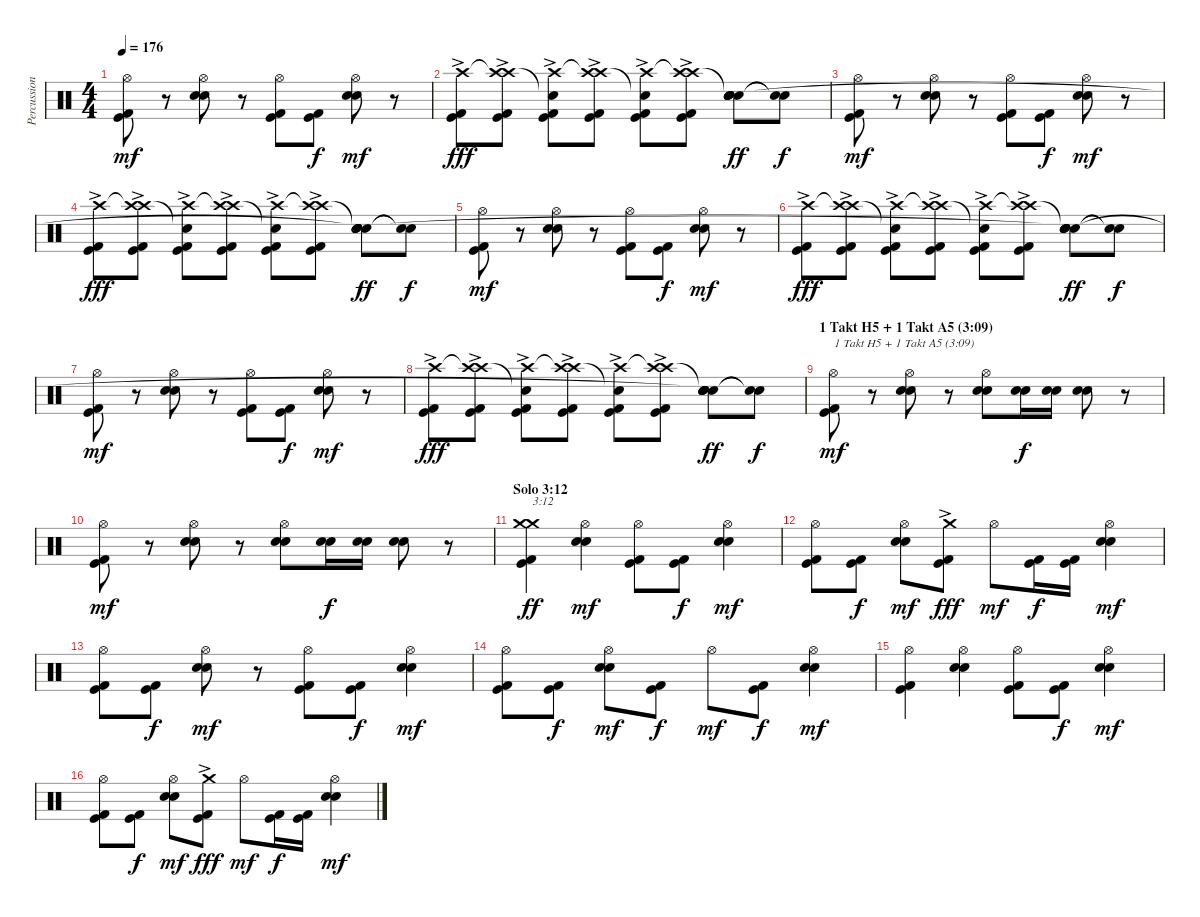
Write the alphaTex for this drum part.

\track ("Percussion" "Percussion") {instrument percussion}
\staff {score}
\articulation defaults
\ts (4 4)
\tempo 176
\clef neutral
\ks c
("Kick (hit) 2" "Kick (hit)" "Hi-Hat (open)").8{dy mf} r.8 ("Electric Snare (hit)" "Snare (hit) 2" "Hi-Hat (open)").8 r.8 ("Kick (hit) 2" "Kick (hit)" "Hi-Hat (open)").8 ("Kick (hit) 2" "Kick (hit)").8{dy f} ("Electric Snare (hit)" "Snare (hit) 2" "Hi-Hat (open)").8{dy mf} r.8 |
("Kick (hit) 2" "Kick (hit)" "Crash high (hit)"{ac}).8{dy fff} ("Kick (hit) 2" "Kick (hit)" "Crash high (hit)"{t} "Crash high (hit)"{ac}).8 ("Kick (hit) 2" "Kick (hit)" "Crash high (hit)"{ac} "Snare (hit)"{t}).8 ("Kick (hit) 2" "Kick (hit)" "Crash high (hit)"{t} "Crash high (hit)"{ac}).8 ("Kick (hit) 2" "Kick (hit)" "Crash high (hit)"{ac} "Snare (hit)"{t}).8 ("Kick (hit) 2" "Kick (hit)" "Crash high (hit)"{t} "Crash high (hit)"{ac}).8 ("Electric Snare (hit)" "Snare (hit) 2" "Electric Snare (hit)" "Electric Snare (hit)"{t} "Snare (hit)"{t}).8{dy ff} ("Snare (hit)"{t} "Snare (hit)"{t}).8{dy f} |
("Kick (hit) 2" "Kick (hit)" "Hi-Hat (open)").8{dy mf} r.8 ("Electric Snare (hit)" "Snare (hit) 2" "Hi-Hat (open)").8 r.8 ("Kick (hit) 2" "Kick (hit)" "Hi-Hat (open)").8 ("Kick (hit) 2" "Kick (hit)").8{dy f} ("Electric Snare (hit)" "Snare (hit) 2" "Hi-Hat (open)").8{dy mf} r.8 |
("Kick (hit) 2" "Kick (hit)" "Crash high (hit)"{ac}).8{dy fff} ("Kick (hit) 2" "Kick (hit)" "Crash high (hit)"{t} "Crash high (hit)"{ac}).8 ("Kick (hit) 2" "Kick (hit)" "Crash high (hit)"{ac} "Snare (hit)"{t}).8 ("Kick (hit) 2" "Kick (hit)" "Crash high (hit)"{t} "Crash high (hit)"{ac}).8 ("Kick (hit) 2" "Kick (hit)" "Crash high (hit)"{ac} "Snare (hit)"{t}).8 ("Kick (hit) 2" "Kick (hit)" "Crash high (hit)"{t} "Crash high (hit)"{ac}).8 ("Electric Snare (hit)" "Snare (hit) 2" "Electric Snare (hit)" "Electric Snare (hit)"{t} "Snare (hit)"{t}).8{dy ff} ("Snare (hit)"{t} "Snare (hit)"{t}).8{dy f} |
("Kick (hit) 2" "Kick (hit)" "Hi-Hat (open)").8{dy mf} r.8 ("Electric Snare (hit)" "Snare (hit) 2" "Hi-Hat (open)").8 r.8 ("Kick (hit) 2" "Kick (hit)" "Hi-Hat (open)").8 ("Kick (hit) 2" "Kick (hit)").8{dy f} ("Electric Snare (hit)" "Snare (hit) 2" "Hi-Hat (open)").8{dy mf} r.8 |
("Kick (hit) 2" "Kick (hit)" "Crash high (hit)"{ac}).8{dy fff} ("Kick (hit) 2" "Kick (hit)" "Crash high (hit)"{t} "Crash high (hit)"{ac}).8 ("Kick (hit) 2" "Kick (hit)" "Crash high (hit)"{ac} "Snare (hit)"{t}).8 ("Kick (hit) 2" "Kick (hit)" "Crash high (hit)"{t} "Crash high (hit)"{ac}).8 ("Kick (hit) 2" "Kick (hit)" "Crash high (hit)"{ac} "Snare (hit)"{t}).8 ("Kick (hit) 2" "Kick (hit)" "Crash high (hit)"{t} "Crash high (hit)"{ac}).8 ("Electric Snare (hit)" "Snare (hit) 2" "Electric Snare (hit)" "Electric Snare (hit)"{t} "Snare (hit)"{t}).8{dy ff} ("Snare (hit)"{t} "Snare (hit)"{t}).8{dy f} |
("Kick (hit) 2" "Kick (hit)" "Hi-Hat (open)").8{dy mf} r.8 ("Electric Snare (hit)" "Snare (hit) 2" "Hi-Hat (open)").8 r.8 ("Kick (hit) 2" "Kick (hit)" "Hi-Hat (open)").8 ("Kick (hit) 2" "Kick (hit)").8{dy f} ("Electric Snare (hit)" "Snare (hit) 2" "Hi-Hat (open)").8{dy mf} r.8 |
("Kick (hit) 2" "Kick (hit)" "Crash high (hit)"{ac}).8{dy fff} ("Kick (hit) 2" "Kick (hit)" "Crash high (hit)"{t} "Crash high (hit)"{ac}).8 ("Kick (hit) 2" "Kick (hit)" "Crash high (hit)"{ac} "Snare (hit)"{t}).8 ("Kick (hit) 2" "Kick (hit)" "Crash high (hit)"{t} "Crash high (hit)"{ac}).8 ("Kick (hit) 2" "Kick (hit)" "Crash high (hit)"{ac} "Snare (hit)"{t}).8 ("Kick (hit) 2" "Kick (hit)" "Crash high (hit)"{t} "Crash high (hit)"{ac}).8 ("Electric Snare (hit)" "Snare (hit) 2" "Electric Snare (hit)" "Electric Snare (hit)"{t} "Snare (hit)"{t}).8{dy ff} ("Snare (hit)"{t} "Snare (hit)"{t}).8{dy f} |
\section ("" "1 Takt H5 + 1 Takt A5 (3:09)")
("Kick (hit) 2" "Kick (hit)" "Hi-Hat (open)").8{txt "1 Takt H5 + 1 Takt A5 (3:09)" dy mf} r.8 ("Electric Snare (hit)" "Snare (hit) 2" "Hi-Hat (open)").8 r.8 ("Electric Snare (hit)" "Snare (hit) 2" "Hi-Hat (open)").8 ("Electric Snare (hit)" "Snare (hit) 2").16{dy f} ("Electric Snare (hit)" "Snare (hit) 2").16 ("Electric Snare (hit)" "Snare (hit) 2").8 r.8 |
("Kick (hit) 2" "Kick (hit)" "Hi-Hat (open)").8{dy mf} r.8 ("Electric Snare (hit)" "Snare (hit) 2" "Hi-Hat (open)").8 r.8 ("Electric Snare (hit)" "Snare (hit) 2" "Hi-Hat (open)").8 ("Electric Snare (hit)" "Snare (hit) 2").16{dy f} ("Electric Snare (hit)" "Snare (hit) 2").16 ("Electric Snare (hit)" "Snare (hit) 2").8 r.8 |
\section ("" "Solo 3:12")
("Kick (hit) 2" "Kick (hit)" "Crash medium (hit)" "Crash medium (hit)").4{txt "3:12" dy ff} ("Electric Snare (hit)" "Snare (hit) 2" "Hi-Hat (open)").4{dy mf} ("Kick (hit) 2" "Kick (hit)" "Hi-Hat (open)").8 ("Kick (hit) 2" "Kick (hit)").8{dy f} ("Electric Snare (hit)" "Snare (hit) 2" "Hi-Hat (open)").4{dy mf} |
("Kick (hit) 2" "Kick (hit)" "Hi-Hat (open)").8 ("Kick (hit) 2" "Kick (hit)").8{dy f} ("Electric Snare (hit)" "Snare (hit) 2" "Hi-Hat (open)").8{dy mf} ("Kick (hit) 2" "Kick (hit)" "Crash medium (hit)"{ac}).8{dy fff} "Hi-Hat (open)".8{dy mf} ("Kick (hit) 2" "Kick (hit)").16{dy f} ("Kick (hit) 2" "Kick (hit)").16 ("Electric Snare (hit)" "Snare (hit) 2" "Hi-Hat (open)").4{dy mf} |
("Kick (hit) 2" "Kick (hit)" "Hi-Hat (open)").8 ("Kick (hit) 2" "Kick (hit)").8{dy f} ("Electric Snare (hit)" "Snare (hit) 2" "Hi-Hat (open)").8{dy mf} r.8 ("Kick (hit) 2" "Kick (hit)" "Hi-Hat (open)").8 ("Kick (hit) 2" "Kick (hit)").8{dy f} ("Electric Snare (hit)" "Snare (hit) 2" "Hi-Hat (open)").4{dy mf} |
("Kick (hit) 2" "Kick (hit)" "Hi-Hat (open)").8 ("Kick (hit) 2" "Kick (hit)").8{dy f} ("Electric Snare (hit)" "Snare (hit) 2" "Hi-Hat (open)").8{dy mf} ("Kick (hit) 2" "Kick (hit)").8{dy f} "Hi-Hat (open)".8{dy mf} ("Kick (hit) 2" "Kick (hit)").8{dy f} ("Electric Snare (hit)" "Snare (hit) 2" "Hi-Hat (open)").4{dy mf} |
("Kick (hit) 2" "Kick (hit)" "Hi-Hat (open)").4 ("Electric Snare (hit)" "Snare (hit) 2" "Hi-Hat (open)").4 ("Kick (hit) 2" "Kick (hit)" "Hi-Hat (open)").8 ("Kick (hit) 2" "Kick (hit)").8{dy f} ("Electric Snare (hit)" "Snare (hit) 2" "Hi-Hat (open)").4{dy mf} |
("Kick (hit) 2" "Kick (hit)" "Hi-Hat (open)").8 ("Kick (hit) 2" "Kick (hit)").8{dy f} ("Electric Snare (hit)" "Snare (hit) 2" "Hi-Hat (open)").8{dy mf} ("Kick (hit) 2" "Kick (hit)" "Crash medium (hit)"{ac}).8{dy fff} "Hi-Hat (open)".8{dy mf} ("Kick (hit) 2" "Kick (hit)").16{dy f} ("Kick (hit) 2" "Kick (hit)").16 ("Electric Snare (hit)" "Snare (hit) 2" "Hi-Hat (open)").4{dy mf}
